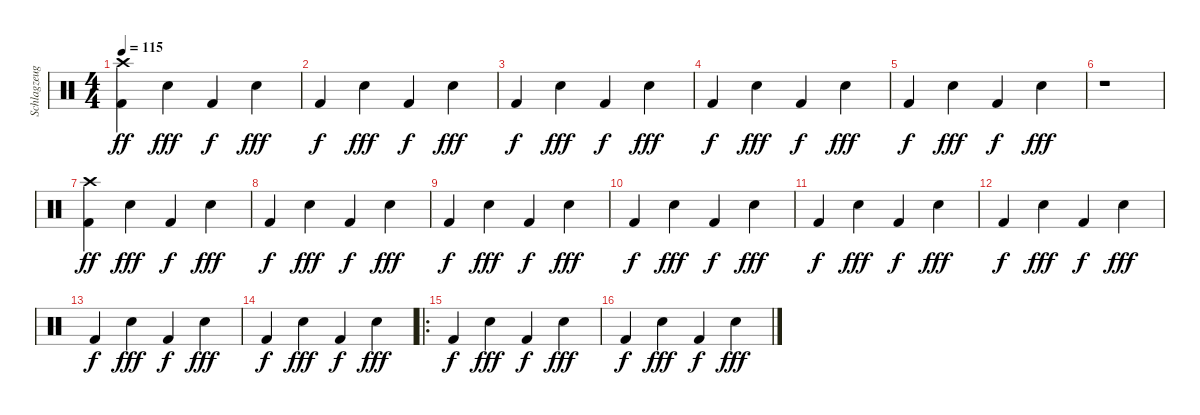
\track ("Schlagzeug" "Schlagzeug") {instrument percussion}
\staff {score}
\articulation defaults
\ts (4 4)
\tempo 115
\clef neutral
\ks c
("Crash high (hit)" "Kick (hit) 2").4{dy ff} "Electric Snare (hit)".4{dy fff} "Kick (hit) 2".4{dy f} "Electric Snare (hit)".4{dy fff} |
"Kick (hit) 2".4{dy f} "Electric Snare (hit)".4{dy fff} "Kick (hit) 2".4{dy f} "Electric Snare (hit)".4{dy fff} |
"Kick (hit) 2".4{dy f} "Electric Snare (hit)".4{dy fff} "Kick (hit) 2".4{dy f} "Electric Snare (hit)".4{dy fff} |
"Kick (hit) 2".4{dy f} "Electric Snare (hit)".4{dy fff} "Kick (hit) 2".4{dy f} "Electric Snare (hit)".4{dy fff} |
"Kick (hit) 2".4{dy f} "Electric Snare (hit)".4{dy fff} "Kick (hit) 2".4{dy f} "Electric Snare (hit)".4{dy fff} |
r.1 |
("Crash high (hit)" "Kick (hit) 2").4{dy ff} "Electric Snare (hit)".4{dy fff} "Kick (hit) 2".4{dy f} "Electric Snare (hit)".4{dy fff} |
"Kick (hit) 2".4{dy f} "Electric Snare (hit)".4{dy fff} "Kick (hit) 2".4{dy f} "Electric Snare (hit)".4{dy fff} |
"Kick (hit) 2".4{dy f} "Electric Snare (hit)".4{dy fff} "Kick (hit) 2".4{dy f} "Electric Snare (hit)".4{dy fff} |
"Kick (hit) 2".4{dy f} "Electric Snare (hit)".4{dy fff} "Kick (hit) 2".4{dy f} "Electric Snare (hit)".4{dy fff} |
"Kick (hit) 2".4{dy f} "Electric Snare (hit)".4{dy fff} "Kick (hit) 2".4{dy f} "Electric Snare (hit)".4{dy fff} |
"Kick (hit) 2".4{dy f} "Electric Snare (hit)".4{dy fff} "Kick (hit) 2".4{dy f} "Electric Snare (hit)".4{dy fff} |
"Kick (hit) 2".4{dy f} "Electric Snare (hit)".4{dy fff} "Kick (hit) 2".4{dy f} "Electric Snare (hit)".4{dy fff} |
"Kick (hit) 2".4{dy f} "Electric Snare (hit)".4{dy fff} "Kick (hit) 2".4{dy f} "Electric Snare (hit)".4{dy fff} |
\ro "Kick (hit) 2".4{dy f} "Electric Snare (hit)".4{dy fff} "Kick (hit) 2".4{dy f} "Electric Snare (hit)".4{dy fff}
|
"Kick (hit) 2".4{dy f} "Electric Snare (hit)".4{dy fff} "Kick (hit) 2".4{dy f} "Electric Snare (hit)".4{dy fff}
